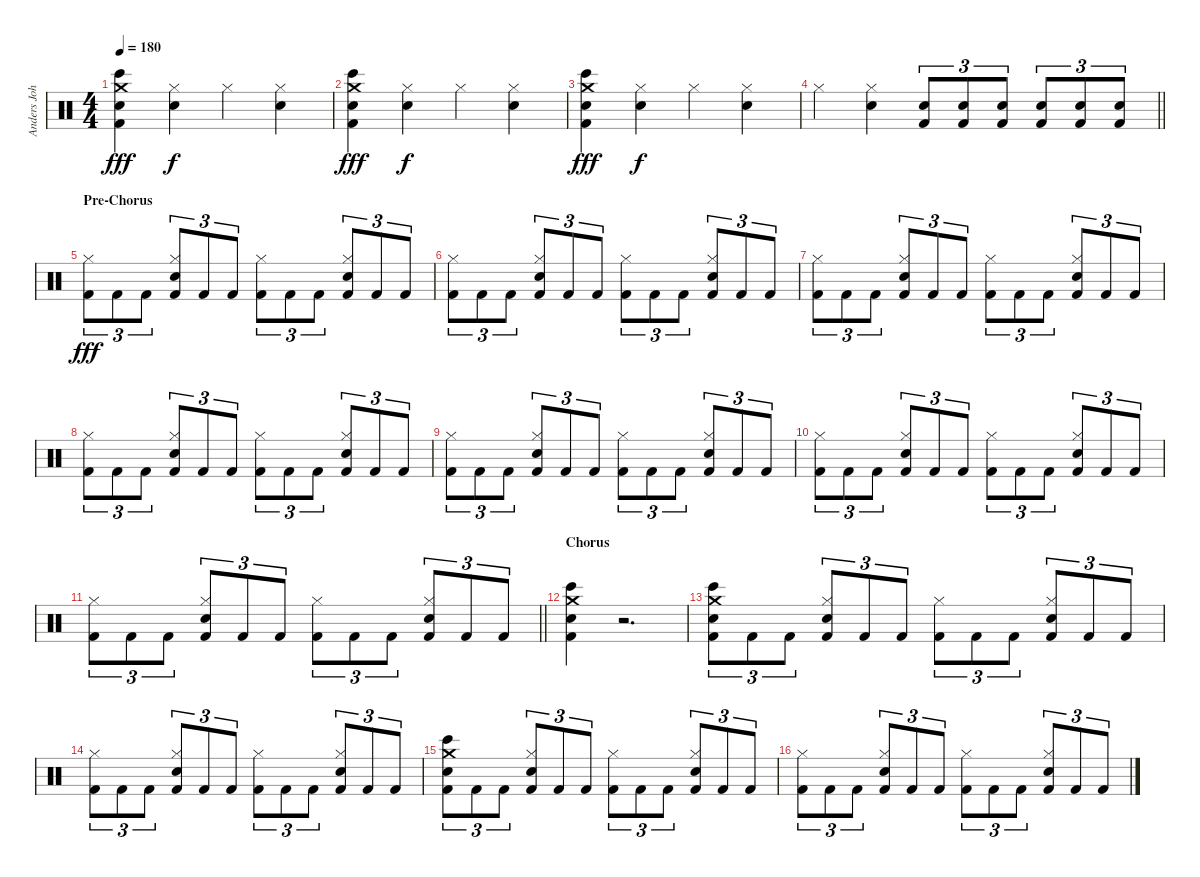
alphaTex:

\track ("Anders Johansson" "Anders Joh") {instrument percussion}
\staff {score}
\articulation defaults
\ts (4 4)
\tempo 180
\clef neutral
\ks c
("Bongo High (hit)" "Crash medium (hit)" "Snare (hit) 2" "Kick (hit) 2").4{dy fff} ("Hi-Hat (closed)" "Electric Snare (hit)").4{dy f} "Hi-Hat (closed)".4 ("Hi-Hat (closed)" "Electric Snare (hit)").4 |
("Bongo High (hit)" "Crash medium (hit)" "Snare (hit) 2" "Kick (hit) 2").4{dy fff} ("Hi-Hat (closed)" "Electric Snare (hit)").4{dy f} "Hi-Hat (closed)".4 ("Hi-Hat (closed)" "Electric Snare (hit)").4 |
("Bongo High (hit)" "Crash medium (hit)" "Snare (hit) 2" "Kick (hit) 2").4{dy fff} ("Hi-Hat (closed)" "Electric Snare (hit)").4{dy f} "Hi-Hat (closed)".4 ("Hi-Hat (closed)" "Electric Snare (hit)").4 |
\barLineRight lightlight "Hi-Hat (closed)".4
("Hi-Hat (closed)" "Electric Snare (hit)").4 ("Snare (hit) 2" "Kick (hit) 2").8{tu (3 2)} ("Electric Snare (hit)" "Kick (hit) 2").8{tu (3 2)} ("Snare (hit) 2" "Kick (hit) 2").8{tu (3 2)} ("Snare (hit) 2" "Kick (hit) 2").8{tu (3 2)} ("Electric Snare (hit)" "Kick (hit) 2").8{tu (3 2)} ("Snare (hit) 2" "Kick (hit) 2").8{tu (3 2)} |
\section ("" "Pre-Chorus")
("Hi-Hat (closed)" "Kick (hit) 2").8{tu (3 2) dy fff} "Kick (hit) 2".8{tu (3 2)} "Kick (hit) 2".8{tu (3 2)} ("Hi-Hat (closed)" "Electric Snare (hit)" "Kick (hit) 2").8{tu (3 2)} "Kick (hit) 2".8{tu (3 2)} "Kick (hit) 2".8{tu (3 2)} ("Hi-Hat (closed)" "Kick (hit) 2").8{tu (3 2)} "Kick (hit) 2".8{tu (3 2)} "Kick (hit) 2".8{tu (3 2)} ("Hi-Hat (closed)" "Electric Snare (hit)" "Kick (hit) 2").8{tu (3 2)} "Kick (hit) 2".8{tu (3 2)} "Kick (hit) 2".8{tu (3 2)} |
("Hi-Hat (closed)" "Kick (hit) 2").8{tu (3 2)} "Kick (hit) 2".8{tu (3 2)} "Kick (hit) 2".8{tu (3 2)} ("Hi-Hat (closed)" "Electric Snare (hit)" "Kick (hit) 2").8{tu (3 2)} "Kick (hit) 2".8{tu (3 2)} "Kick (hit) 2".8{tu (3 2)} ("Hi-Hat (closed)" "Kick (hit) 2").8{tu (3 2)} "Kick (hit) 2".8{tu (3 2)} "Kick (hit) 2".8{tu (3 2)} ("Hi-Hat (closed)" "Electric Snare (hit)" "Kick (hit) 2").8{tu (3 2)} "Kick (hit) 2".8{tu (3 2)} "Kick (hit) 2".8{tu (3 2)} |
("Hi-Hat (closed)" "Kick (hit) 2").8{tu (3 2)} "Kick (hit) 2".8{tu (3 2)} "Kick (hit) 2".8{tu (3 2)} ("Hi-Hat (closed)" "Electric Snare (hit)" "Kick (hit) 2").8{tu (3 2)} "Kick (hit) 2".8{tu (3 2)} "Kick (hit) 2".8{tu (3 2)} ("Hi-Hat (closed)" "Kick (hit) 2").8{tu (3 2)} "Kick (hit) 2".8{tu (3 2)} "Kick (hit) 2".8{tu (3 2)} ("Hi-Hat (closed)" "Electric Snare (hit)" "Kick (hit) 2").8{tu (3 2)} "Kick (hit) 2".8{tu (3 2)} "Kick (hit) 2".8{tu (3 2)} |
("Hi-Hat (closed)" "Kick (hit) 2").8{tu (3 2)} "Kick (hit) 2".8{tu (3 2)} "Kick (hit) 2".8{tu (3 2)} ("Hi-Hat (closed)" "Electric Snare (hit)" "Kick (hit) 2").8{tu (3 2)} "Kick (hit) 2".8{tu (3 2)} "Kick (hit) 2".8{tu (3 2)} ("Hi-Hat (closed)" "Kick (hit) 2").8{tu (3 2)} "Kick (hit) 2".8{tu (3 2)} "Kick (hit) 2".8{tu (3 2)} ("Hi-Hat (closed)" "Electric Snare (hit)" "Kick (hit) 2").8{tu (3 2)} "Kick (hit) 2".8{tu (3 2)} "Kick (hit) 2".8{tu (3 2)} |
("Hi-Hat (closed)" "Kick (hit) 2").8{tu (3 2)} "Kick (hit) 2".8{tu (3 2)} "Kick (hit) 2".8{tu (3 2)} ("Hi-Hat (closed)" "Electric Snare (hit)" "Kick (hit) 2").8{tu (3 2)} "Kick (hit) 2".8{tu (3 2)} "Kick (hit) 2".8{tu (3 2)} ("Hi-Hat (closed)" "Kick (hit) 2").8{tu (3 2)} "Kick (hit) 2".8{tu (3 2)} "Kick (hit) 2".8{tu (3 2)} ("Hi-Hat (closed)" "Electric Snare (hit)" "Kick (hit) 2").8{tu (3 2)} "Kick (hit) 2".8{tu (3 2)} "Kick (hit) 2".8{tu (3 2)} |
("Hi-Hat (closed)" "Kick (hit) 2").8{tu (3 2)} "Kick (hit) 2".8{tu (3 2)} "Kick (hit) 2".8{tu (3 2)} ("Hi-Hat (closed)" "Electric Snare (hit)" "Kick (hit) 2").8{tu (3 2)} "Kick (hit) 2".8{tu (3 2)} "Kick (hit) 2".8{tu (3 2)} ("Hi-Hat (closed)" "Kick (hit) 2").8{tu (3 2)} "Kick (hit) 2".8{tu (3 2)} "Kick (hit) 2".8{tu (3 2)} ("Hi-Hat (closed)" "Electric Snare (hit)" "Kick (hit) 2").8{tu (3 2)} "Kick (hit) 2".8{tu (3 2)} "Kick (hit) 2".8{tu (3 2)} |
\barLineRight lightlight
("Hi-Hat (closed)" "Kick (hit) 2").8{tu (3 2)} "Kick (hit) 2".8{tu (3 2)} "Kick (hit) 2".8{tu (3 2)} ("Hi-Hat (closed)" "Electric Snare (hit)" "Kick (hit) 2").8{tu (3 2)} "Kick (hit) 2".8{tu (3 2)} "Kick (hit) 2".8{tu (3 2)} ("Hi-Hat (closed)" "Kick (hit) 2").8{tu (3 2)} "Kick (hit) 2".8{tu (3 2)} "Kick (hit) 2".8{tu (3 2)} ("Hi-Hat (closed)" "Electric Snare (hit)" "Kick (hit) 2").8{tu (3 2)} "Kick (hit) 2".8{tu (3 2)} "Kick (hit) 2".8{tu (3 2)} |
\section ("" "Chorus")
("Bongo High (hit)" "Crash medium (hit)" "Snare (hit) 2" "Kick (hit) 2").4 r.2{d} |
("Bongo High (hit)" "Crash medium (hit)" "Snare (hit) 2" "Kick (hit) 2").8{tu (3 2)} "Kick (hit) 2".8{tu (3 2)} "Kick (hit) 2".8{tu (3 2)} ("Hi-Hat (closed)" "Electric Snare (hit)" "Kick (hit) 2").8{tu (3 2)} "Kick (hit) 2".8{tu (3 2)} "Kick (hit) 2".8{tu (3 2)} ("Hi-Hat (closed)" "Kick (hit) 2").8{tu (3 2)} "Kick (hit) 2".8{tu (3 2)} "Kick (hit) 2".8{tu (3 2)} ("Hi-Hat (closed)" "Electric Snare (hit)" "Kick (hit) 2").8{tu (3 2)} "Kick (hit) 2".8{tu (3 2)} "Kick (hit) 2".8{tu (3 2)} |
("Hi-Hat (closed)" "Kick (hit) 2").8{tu (3 2)} "Kick (hit) 2".8{tu (3 2)} "Kick (hit) 2".8{tu (3 2)} ("Hi-Hat (closed)" "Electric Snare (hit)" "Kick (hit) 2").8{tu (3 2)} "Kick (hit) 2".8{tu (3 2)} "Kick (hit) 2".8{tu (3 2)} ("Hi-Hat (closed)" "Kick (hit) 2").8{tu (3 2)} "Kick (hit) 2".8{tu (3 2)} "Kick (hit) 2".8{tu (3 2)} ("Hi-Hat (closed)" "Electric Snare (hit)" "Kick (hit) 2").8{tu (3 2)} "Kick (hit) 2".8{tu (3 2)} "Kick (hit) 2".8{tu (3 2)} |
("Bongo High (hit)" "Crash medium (hit)" "Snare (hit) 2" "Kick (hit) 2").8{tu (3 2)} "Kick (hit) 2".8{tu (3 2)} "Kick (hit) 2".8{tu (3 2)} ("Hi-Hat (closed)" "Electric Snare (hit)" "Kick (hit) 2").8{tu (3 2)} "Kick (hit) 2".8{tu (3 2)} "Kick (hit) 2".8{tu (3 2)} ("Hi-Hat (closed)" "Kick (hit) 2").8{tu (3 2)} "Kick (hit) 2".8{tu (3 2)} "Kick (hit) 2".8{tu (3 2)} ("Hi-Hat (closed)" "Electric Snare (hit)" "Kick (hit) 2").8{tu (3 2)} "Kick (hit) 2".8{tu (3 2)} "Kick (hit) 2".8{tu (3 2)} |
("Hi-Hat (closed)" "Kick (hit) 2").8{tu (3 2)} "Kick (hit) 2".8{tu (3 2)} "Kick (hit) 2".8{tu (3 2)} ("Hi-Hat (closed)" "Electric Snare (hit)" "Kick (hit) 2").8{tu (3 2)} "Kick (hit) 2".8{tu (3 2)} "Kick (hit) 2".8{tu (3 2)} ("Hi-Hat (closed)" "Kick (hit) 2").8{tu (3 2)} "Kick (hit) 2".8{tu (3 2)} "Kick (hit) 2".8{tu (3 2)} ("Hi-Hat (closed)" "Electric Snare (hit)" "Kick (hit) 2").8{tu (3 2)} "Kick (hit) 2".8{tu (3 2)} "Kick (hit) 2".8{tu (3 2)}
